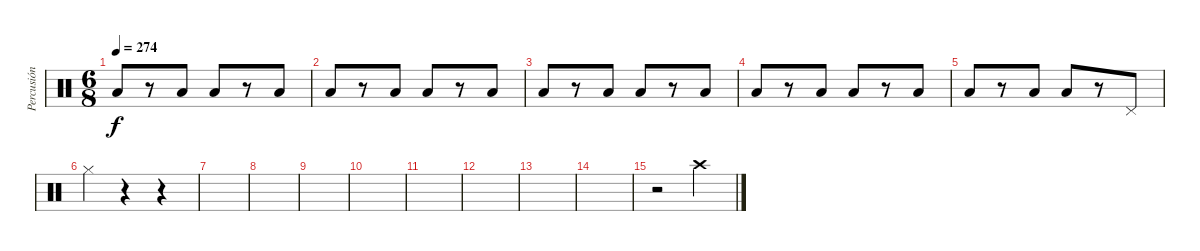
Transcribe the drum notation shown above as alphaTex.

\track ("Percusión Bastarda" "Percusión ") {instrument percussion}
\staff {score}
\articulation defaults
\ts (6 8)
\tempo 274
\clef neutral
\ks c "Low Floor Tom (hit)".8{dy f}
r.8 "Low Floor Tom (hit)".8 "Low Tom (hit)".8 r.8 "Low Tom (hit)".8 |
"Low Floor Tom (hit)".8 r.8 "Low Floor Tom (hit)".8 "Low Tom (hit)".8 r.8 "Low Tom (hit)".8 |
"Low Floor Tom (hit)".8 r.8 "Low Floor Tom (hit)".8 "Low Tom (hit)".8 r.8 "Low Tom (hit)".8 |
"Low Floor Tom (hit)".8 r.8 "Low Floor Tom (hit)".8 "Low Tom (hit)".8 r.8 "Low Tom (hit)".8 |
"Low Floor Tom (hit)".8 r.8 "Low Floor Tom (hit)".8 "Low Tom (hit)".8 r.8 "Pedal Hi-Hat (hit)".8 |
"Hi-Hat (closed)".4 r.4 r.4 |
|
|
|
|
|
|
|
|
r.2 "Crash high (hit)".4
